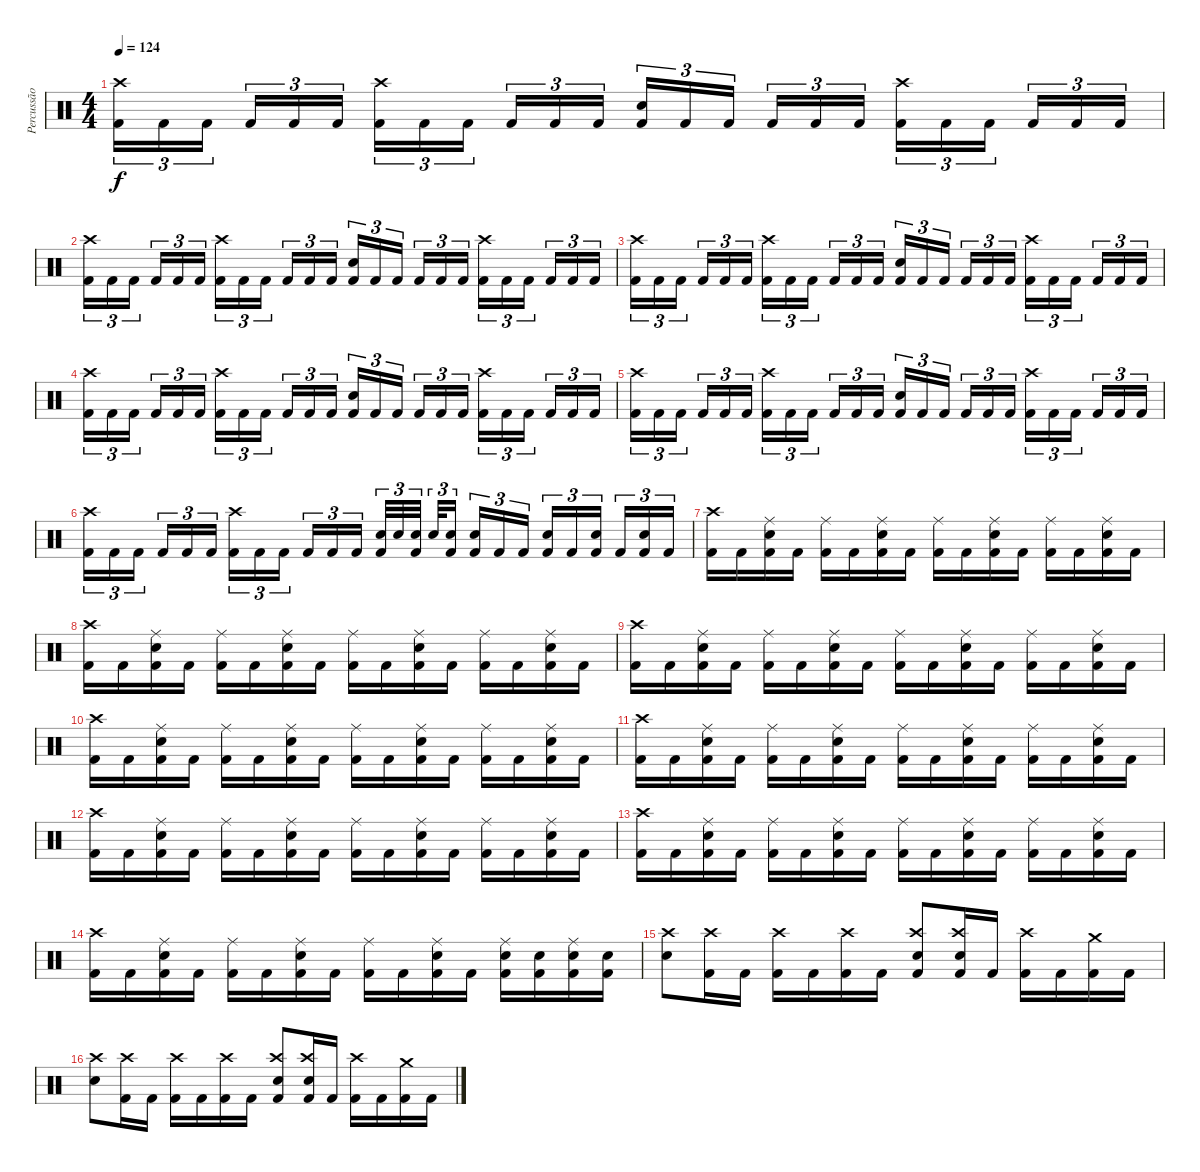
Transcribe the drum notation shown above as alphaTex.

\track ("Percussão" "Percussão") {instrument percussion}
\staff {score}
\articulation defaults
\ts (4 4)
\tempo 124
\clef neutral
\ks c
("Kick (hit) 2" "Crash high (hit)").16{tu (3 2) dy f} "Kick (hit) 2".16{tu (3 2)} "Kick (hit) 2".16{tu (3 2)} "Kick (hit) 2".16{tu (3 2)} "Kick (hit) 2".16{tu (3 2)} "Kick (hit) 2".16{tu (3 2)} ("Kick (hit) 2" "Crash high (hit)").16{tu (3 2)} "Kick (hit) 2".16{tu (3 2)} "Kick (hit) 2".16{tu (3 2)} "Kick (hit) 2".16{tu (3 2)} "Kick (hit) 2".16{tu (3 2)} "Kick (hit) 2".16{tu (3 2)} ("Kick (hit) 2" "Electric Snare (hit)").16{tu (3 2)} "Kick (hit) 2".16{tu (3 2)} "Kick (hit) 2".16{tu (3 2)} "Kick (hit) 2".16{tu (3 2)} "Kick (hit) 2".16{tu (3 2)} "Kick (hit) 2".16{tu (3 2)} ("Kick (hit) 2" "Crash high (hit)").16{tu (3 2)} "Kick (hit) 2".16{tu (3 2)} "Kick (hit) 2".16{tu (3 2)} "Kick (hit) 2".16{tu (3 2)} "Kick (hit) 2".16{tu (3 2)} "Kick (hit) 2".16{tu (3 2)} |
("Kick (hit) 2" "Crash high (hit)").16{tu (3 2)} "Kick (hit) 2".16{tu (3 2)} "Kick (hit) 2".16{tu (3 2)} "Kick (hit) 2".16{tu (3 2)} "Kick (hit) 2".16{tu (3 2)} "Kick (hit) 2".16{tu (3 2)} ("Kick (hit) 2" "Crash high (hit)").16{tu (3 2)} "Kick (hit) 2".16{tu (3 2)} "Kick (hit) 2".16{tu (3 2)} "Kick (hit) 2".16{tu (3 2)} "Kick (hit) 2".16{tu (3 2)} "Kick (hit) 2".16{tu (3 2)} ("Kick (hit) 2" "Electric Snare (hit)").16{tu (3 2)} "Kick (hit) 2".16{tu (3 2)} "Kick (hit) 2".16{tu (3 2)} "Kick (hit) 2".16{tu (3 2)} "Kick (hit) 2".16{tu (3 2)} "Kick (hit) 2".16{tu (3 2)} ("Kick (hit) 2" "Crash high (hit)").16{tu (3 2)} "Kick (hit) 2".16{tu (3 2)} "Kick (hit) 2".16{tu (3 2)} "Kick (hit) 2".16{tu (3 2)} "Kick (hit) 2".16{tu (3 2)} "Kick (hit) 2".16{tu (3 2)} |
("Kick (hit) 2" "Crash high (hit)").16{tu (3 2)} "Kick (hit) 2".16{tu (3 2)} "Kick (hit) 2".16{tu (3 2)} "Kick (hit) 2".16{tu (3 2)} "Kick (hit) 2".16{tu (3 2)} "Kick (hit) 2".16{tu (3 2)} ("Kick (hit) 2" "Crash high (hit)").16{tu (3 2)} "Kick (hit) 2".16{tu (3 2)} "Kick (hit) 2".16{tu (3 2)} "Kick (hit) 2".16{tu (3 2)} "Kick (hit) 2".16{tu (3 2)} "Kick (hit) 2".16{tu (3 2)} ("Kick (hit) 2" "Electric Snare (hit)").16{tu (3 2)} "Kick (hit) 2".16{tu (3 2)} "Kick (hit) 2".16{tu (3 2)} "Kick (hit) 2".16{tu (3 2)} "Kick (hit) 2".16{tu (3 2)} "Kick (hit) 2".16{tu (3 2)} ("Kick (hit) 2" "Crash high (hit)").16{tu (3 2)} "Kick (hit) 2".16{tu (3 2)} "Kick (hit) 2".16{tu (3 2)} "Kick (hit) 2".16{tu (3 2)} "Kick (hit) 2".16{tu (3 2)} "Kick (hit) 2".16{tu (3 2)} |
("Kick (hit) 2" "Crash high (hit)").16{tu (3 2)} "Kick (hit) 2".16{tu (3 2)} "Kick (hit) 2".16{tu (3 2)} "Kick (hit) 2".16{tu (3 2)} "Kick (hit) 2".16{tu (3 2)} "Kick (hit) 2".16{tu (3 2)} ("Kick (hit) 2" "Crash high (hit)").16{tu (3 2)} "Kick (hit) 2".16{tu (3 2)} "Kick (hit) 2".16{tu (3 2)} "Kick (hit) 2".16{tu (3 2)} "Kick (hit) 2".16{tu (3 2)} "Kick (hit) 2".16{tu (3 2)} ("Kick (hit) 2" "Electric Snare (hit)").16{tu (3 2)} "Kick (hit) 2".16{tu (3 2)} "Kick (hit) 2".16{tu (3 2)} "Kick (hit) 2".16{tu (3 2)} "Kick (hit) 2".16{tu (3 2)} "Kick (hit) 2".16{tu (3 2)} ("Kick (hit) 2" "Crash high (hit)").16{tu (3 2)} "Kick (hit) 2".16{tu (3 2)} "Kick (hit) 2".16{tu (3 2)} "Kick (hit) 2".16{tu (3 2)} "Kick (hit) 2".16{tu (3 2)} "Kick (hit) 2".16{tu (3 2)} |
("Kick (hit) 2" "Crash high (hit)").16{tu (3 2)} "Kick (hit) 2".16{tu (3 2)} "Kick (hit) 2".16{tu (3 2)} "Kick (hit) 2".16{tu (3 2)} "Kick (hit) 2".16{tu (3 2)} "Kick (hit) 2".16{tu (3 2)} ("Kick (hit) 2" "Crash high (hit)").16{tu (3 2)} "Kick (hit) 2".16{tu (3 2)} "Kick (hit) 2".16{tu (3 2)} "Kick (hit) 2".16{tu (3 2)} "Kick (hit) 2".16{tu (3 2)} "Kick (hit) 2".16{tu (3 2)} ("Kick (hit) 2" "Electric Snare (hit)").16{tu (3 2)} "Kick (hit) 2".16{tu (3 2)} "Kick (hit) 2".16{tu (3 2)} "Kick (hit) 2".16{tu (3 2)} "Kick (hit) 2".16{tu (3 2)} "Kick (hit) 2".16{tu (3 2)} ("Kick (hit) 2" "Crash high (hit)").16{tu (3 2)} "Kick (hit) 2".16{tu (3 2)} "Kick (hit) 2".16{tu (3 2)} "Kick (hit) 2".16{tu (3 2)} "Kick (hit) 2".16{tu (3 2)} "Kick (hit) 2".16{tu (3 2)} |
("Kick (hit) 2" "Crash high (hit)").16{tu (3 2)} "Kick (hit) 2".16{tu (3 2)} "Kick (hit) 2".16{tu (3 2)} "Kick (hit) 2".16{tu (3 2)} "Kick (hit) 2".16{tu (3 2)} "Kick (hit) 2".16{tu (3 2)} ("Kick (hit) 2" "Crash high (hit)").16{tu (3 2)} "Kick (hit) 2".16{tu (3 2)} "Kick (hit) 2".16{tu (3 2)} "Kick (hit) 2".16{tu (3 2)} "Kick (hit) 2".16{tu (3 2)} "Kick (hit) 2".16{tu (3 2)} ("Kick (hit) 2" "Electric Snare (hit)").32{tu (3 2)} "Electric Snare (hit)".32{tu (3 2)} ("Kick (hit) 2" "Electric Snare (hit)").32{tu (3 2)} "Electric Snare (hit)".32{tu (3 2)} ("Kick (hit) 2" "Electric Snare (hit)").16{tu (3 2)} ("Kick (hit) 2" "Electric Snare (hit)").16{tu (3 2)} "Kick (hit) 2".16{tu (3 2)} "Kick (hit) 2".16{tu (3 2)} ("Kick (hit) 2" "Electric Snare (hit)").16{tu (3 2)} "Kick (hit) 2".16{tu (3 2)} ("Kick (hit) 2" "Electric Snare (hit)").16{tu (3 2)} "Kick (hit) 2".16{tu (3 2)} ("Kick (hit) 2" "Electric Snare (hit)").16{tu (3 2)} "Kick (hit) 2".16{tu (3 2)} |
("Kick (hit) 2" "Crash high (hit)").16 "Kick (hit) 2".16 ("Kick (hit) 2" "Electric Snare (hit)" "Ride (middle)").16 "Kick (hit) 2".16 ("Kick (hit) 2" "Ride (middle)").16 "Kick (hit) 2".16 ("Kick (hit) 2" "Electric Snare (hit)" "Ride (middle)").16 "Kick (hit) 2".16 ("Kick (hit) 2" "Ride (middle)").16 "Kick (hit) 2".16 ("Kick (hit) 2" "Electric Snare (hit)" "Ride (middle)").16 "Kick (hit) 2".16 ("Kick (hit) 2" "Ride (middle)").16 "Kick (hit) 2".16 ("Kick (hit) 2" "Electric Snare (hit)" "Ride (middle)").16 "Kick (hit) 2".16 |
("Kick (hit) 2" "Crash high (hit)").16 "Kick (hit) 2".16 ("Kick (hit) 2" "Electric Snare (hit)" "Ride (middle)").16 "Kick (hit) 2".16 ("Kick (hit) 2" "Ride (middle)").16 "Kick (hit) 2".16 ("Kick (hit) 2" "Electric Snare (hit)" "Ride (middle)").16 "Kick (hit) 2".16 ("Kick (hit) 2" "Ride (middle)").16 "Kick (hit) 2".16 ("Kick (hit) 2" "Electric Snare (hit)" "Ride (middle)").16 "Kick (hit) 2".16 ("Kick (hit) 2" "Ride (middle)").16 "Kick (hit) 2".16 ("Kick (hit) 2" "Electric Snare (hit)" "Ride (middle)").16 "Kick (hit) 2".16 |
("Kick (hit) 2" "Crash high (hit)").16 "Kick (hit) 2".16 ("Kick (hit) 2" "Electric Snare (hit)" "Ride (middle)").16 "Kick (hit) 2".16 ("Kick (hit) 2" "Ride (middle)").16 "Kick (hit) 2".16 ("Kick (hit) 2" "Electric Snare (hit)" "Ride (middle)").16 "Kick (hit) 2".16 ("Kick (hit) 2" "Ride (middle)").16 "Kick (hit) 2".16 ("Kick (hit) 2" "Electric Snare (hit)" "Ride (middle)").16 "Kick (hit) 2".16 ("Kick (hit) 2" "Ride (middle)").16 "Kick (hit) 2".16 ("Kick (hit) 2" "Electric Snare (hit)" "Ride (middle)").16 "Kick (hit) 2".16 |
("Kick (hit) 2" "Crash high (hit)").16 "Kick (hit) 2".16 ("Kick (hit) 2" "Electric Snare (hit)" "Ride (middle)").16 "Kick (hit) 2".16 ("Kick (hit) 2" "Ride (middle)").16 "Kick (hit) 2".16 ("Kick (hit) 2" "Electric Snare (hit)" "Ride (middle)").16 "Kick (hit) 2".16 ("Kick (hit) 2" "Ride (middle)").16 "Kick (hit) 2".16 ("Kick (hit) 2" "Electric Snare (hit)" "Ride (middle)").16 "Kick (hit) 2".16 ("Kick (hit) 2" "Ride (middle)").16 "Kick (hit) 2".16 ("Kick (hit) 2" "Electric Snare (hit)" "Ride (middle)").16 "Kick (hit) 2".16 |
("Kick (hit) 2" "Crash high (hit)").16 "Kick (hit) 2".16 ("Kick (hit) 2" "Electric Snare (hit)" "Ride (middle)").16 "Kick (hit) 2".16 ("Kick (hit) 2" "Ride (middle)").16 "Kick (hit) 2".16 ("Kick (hit) 2" "Electric Snare (hit)" "Ride (middle)").16 "Kick (hit) 2".16 ("Kick (hit) 2" "Ride (middle)").16 "Kick (hit) 2".16 ("Kick (hit) 2" "Electric Snare (hit)" "Ride (middle)").16 "Kick (hit) 2".16 ("Kick (hit) 2" "Ride (middle)").16 "Kick (hit) 2".16 ("Kick (hit) 2" "Electric Snare (hit)" "Ride (middle)").16 "Kick (hit) 2".16 |
("Kick (hit) 2" "Crash high (hit)").16 "Kick (hit) 2".16 ("Kick (hit) 2" "Electric Snare (hit)" "Ride (middle)").16 "Kick (hit) 2".16 ("Kick (hit) 2" "Ride (middle)").16 "Kick (hit) 2".16 ("Kick (hit) 2" "Electric Snare (hit)" "Ride (middle)").16 "Kick (hit) 2".16 ("Kick (hit) 2" "Ride (middle)").16 "Kick (hit) 2".16 ("Kick (hit) 2" "Electric Snare (hit)" "Ride (middle)").16 "Kick (hit) 2".16 ("Kick (hit) 2" "Ride (middle)").16 "Kick (hit) 2".16 ("Kick (hit) 2" "Electric Snare (hit)" "Ride (middle)").16 "Kick (hit) 2".16 |
("Kick (hit) 2" "Crash high (hit)").16 "Kick (hit) 2".16 ("Kick (hit) 2" "Electric Snare (hit)" "Ride (middle)").16 "Kick (hit) 2".16 ("Kick (hit) 2" "Ride (middle)").16 "Kick (hit) 2".16 ("Kick (hit) 2" "Electric Snare (hit)" "Ride (middle)").16 "Kick (hit) 2".16 ("Kick (hit) 2" "Ride (middle)").16 "Kick (hit) 2".16 ("Kick (hit) 2" "Electric Snare (hit)" "Ride (middle)").16 "Kick (hit) 2".16 ("Kick (hit) 2" "Ride (middle)").16 "Kick (hit) 2".16 ("Kick (hit) 2" "Electric Snare (hit)" "Ride (middle)").16 "Kick (hit) 2".16 |
("Kick (hit) 2" "Crash high (hit)").16 "Kick (hit) 2".16 ("Kick (hit) 2" "Electric Snare (hit)" "Ride (middle)").16 "Kick (hit) 2".16 ("Kick (hit) 2" "Ride (middle)").16 "Kick (hit) 2".16 ("Kick (hit) 2" "Electric Snare (hit)" "Ride (middle)").16 "Kick (hit) 2".16 ("Kick (hit) 2" "Ride (middle)").16 "Kick (hit) 2".16 ("Kick (hit) 2" "Electric Snare (hit)" "Ride (middle)").16 "Kick (hit) 2".16 ("Kick (hit) 2" "Electric Snare (hit)" "Ride (middle)").16 ("Kick (hit) 2" "Electric Snare (hit)").16 ("Kick (hit) 2" "Electric Snare (hit)" "Ride (middle)").16 ("Kick (hit) 2" "Electric Snare (hit)").16 |
("Electric Snare (hit)" "Crash high (hit)").8 ("Kick (hit) 2" "Crash high (hit)").16 "Kick (hit) 2".16 ("Kick (hit) 2" "Crash high (hit)").16 "Kick (hit) 2".16 ("Kick (hit) 2" "Crash high (hit)").16 "Kick (hit) 2".16 ("Kick (hit) 2" "Electric Snare (hit)" "Crash high (hit)").8 ("Kick (hit) 2" "Electric Snare (hit)" "Crash high (hit)").16 "Kick (hit) 2".16 ("Kick (hit) 2" "Crash high (hit)").16 "Kick (hit) 2".16 ("Kick (hit) 2" "Crash medium (hit)").16 "Kick (hit) 2".16 |
("Electric Snare (hit)" "Crash high (hit)").8 ("Kick (hit) 2" "Crash high (hit)").16 "Kick (hit) 2".16 ("Kick (hit) 2" "Crash high (hit)").16 "Kick (hit) 2".16 ("Kick (hit) 2" "Crash high (hit)").16 "Kick (hit) 2".16 ("Kick (hit) 2" "Electric Snare (hit)" "Crash high (hit)").8 ("Kick (hit) 2" "Electric Snare (hit)" "Crash high (hit)").16 "Kick (hit) 2".16 ("Kick (hit) 2" "Crash high (hit)").16 "Kick (hit) 2".16 ("Kick (hit) 2" "Crash medium (hit)").16 "Kick (hit) 2".16
